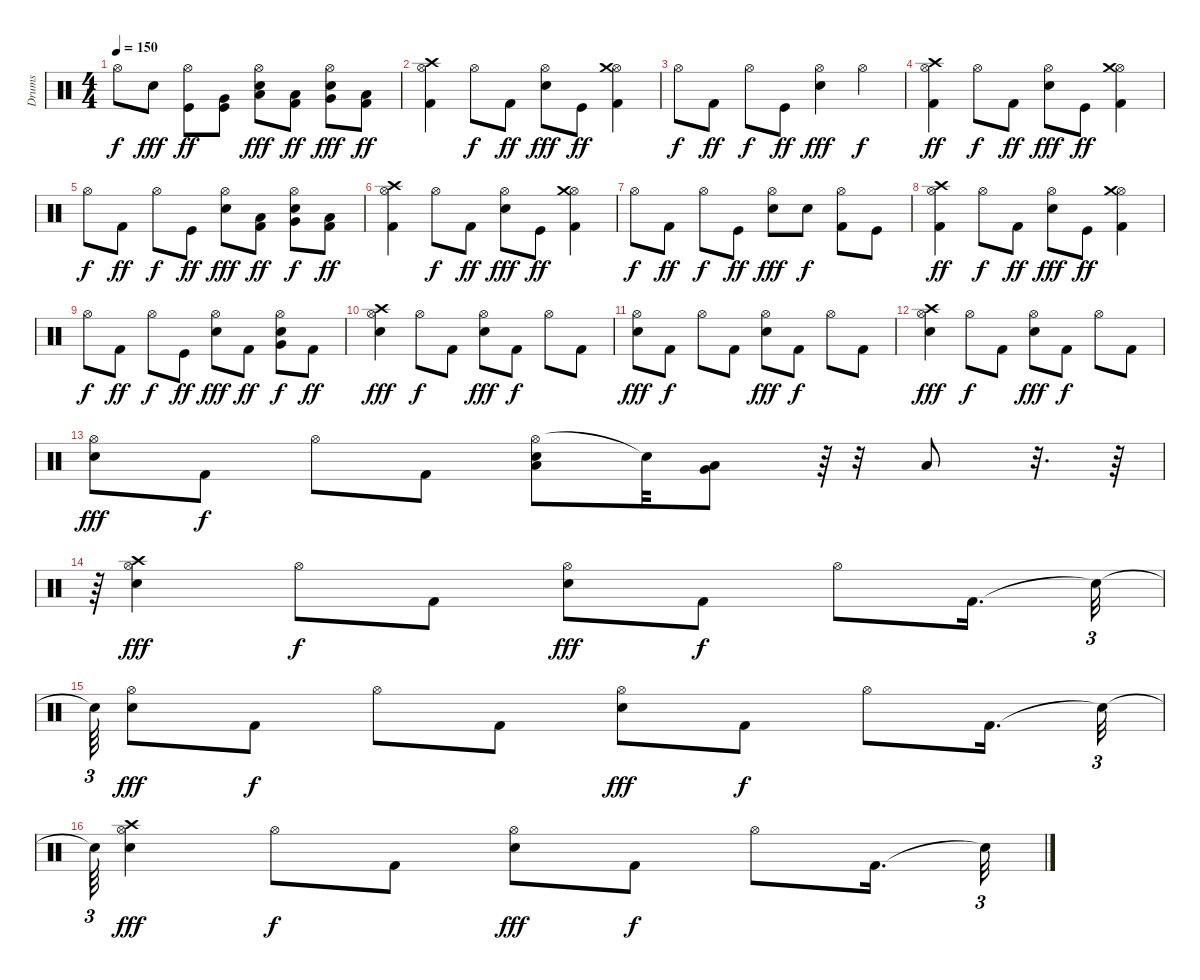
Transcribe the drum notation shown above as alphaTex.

\track ("Drums" "Drums") {instrument percussion}
\staff {score}
\articulation defaults
\ts (4 4)
\tempo 150
\clef neutral
\ks c "Hi-Hat (open)".8{dy f} "Electric Snare (hit)".8{dy fff}
("Hi-Hat (open)" "Kick (hit)").8{dy ff} ("Very Low Tom (hit)" "Kick (hit)").8 ("Hi-Hat (open)" "Electric Snare (hit)" "Low Tom (hit)").8{dy fff} ("Low Tom (hit)" "Kick (hit) 2").8{dy ff} ("Hi-Hat (open)" "Very Low Tom (hit)" "Electric Snare (hit)").8{dy fff} ("Low Floor Tom (hit)" "Kick (hit) 2").8{dy ff} |
("Hi-Hat (open)" "Crash high (hit)" "Kick (hit) 2").4 "Hi-Hat (open)".8{dy f} "Kick (hit) 2".8{dy ff} ("Hi-Hat (open)" "Electric Snare (hit)").8{dy fff} "Kick (hit)".8{dy ff} ("Hi-Hat (open)" "Crash medium (hit)" "Kick (hit) 2").4 |
"Hi-Hat (open)".8{dy f} "Kick (hit) 2".8{dy ff} "Hi-Hat (open)".8{dy f} "Kick (hit)".8{dy ff} ("Hi-Hat (open)" "Electric Snare (hit)").4{dy fff} "Hi-Hat (open)".4{dy f} |
("Hi-Hat (open)" "Crash high (hit)" "Kick (hit) 2").4{dy ff} "Hi-Hat (open)".8{dy f} "Kick (hit) 2".8{dy ff} ("Hi-Hat (open)" "Electric Snare (hit)").8{dy fff} "Kick (hit)".8{dy ff} ("Hi-Hat (open)" "Crash medium (hit)" "Kick (hit) 2").4 |
"Hi-Hat (open)".8{dy f} "Kick (hit) 2".8{dy ff} "Hi-Hat (open)".8{dy f} "Kick (hit)".8{dy ff} ("Hi-Hat (open)" "Electric Snare (hit)").8{dy fff} ("Low Tom (hit)" "Kick (hit) 2").8{dy ff} ("Electric Snare (hit)" "Very Low Tom (hit)" "Hi-Hat (open)").8{dy f} ("Low Floor Tom (hit)" "Kick (hit) 2").8{dy ff} |
("Hi-Hat (open)" "Crash high (hit)" "Kick (hit) 2").4 "Hi-Hat (open)".8{dy f} "Kick (hit) 2".8{dy ff} ("Hi-Hat (open)" "Electric Snare (hit)").8{dy fff} "Kick (hit)".8{dy ff} ("Hi-Hat (open)" "Crash medium (hit)" "Kick (hit) 2").4 |
"Hi-Hat (open)".8{dy f} "Kick (hit) 2".8{dy ff} "Hi-Hat (open)".8{dy f} "Kick (hit)".8{dy ff} ("Hi-Hat (open)" "Electric Snare (hit)").8{dy fff} "Electric Snare (hit)".8{dy f} ("Hi-Hat (open)" "Kick (hit) 2").8 "Kick (hit)".8 |
("Hi-Hat (open)" "Crash high (hit)" "Kick (hit) 2").4{dy ff} "Hi-Hat (open)".8{dy f} "Kick (hit) 2".8{dy ff} ("Hi-Hat (open)" "Electric Snare (hit)").8{dy fff} "Kick (hit)".8{dy ff} ("Hi-Hat (open)" "Crash medium (hit)" "Kick (hit) 2").4 |
"Hi-Hat (open)".8{dy f} "Kick (hit) 2".8{dy ff} "Hi-Hat (open)".8{dy f} "Kick (hit)".8{dy ff} ("Hi-Hat (open)" "Electric Snare (hit)").8{dy fff} "Kick (hit) 2".8{dy ff} ("Very Low Tom (hit)" "Electric Snare (hit)" "Hi-Hat (open)").8{dy f} "Kick (hit) 2".8{dy ff} |
("Crash high (hit)" "Hi-Hat (open)" "Electric Snare (hit)").4{dy fff} "Hi-Hat (open)".8{dy f} "Kick (hit) 2".8 ("Hi-Hat (open)" "Electric Snare (hit)").8{dy fff} "Kick (hit) 2".8{dy f} "Hi-Hat (open)".8 "Kick (hit) 2".8 |
("Hi-Hat (open)" "Electric Snare (hit)").8{dy fff} "Kick (hit) 2".8{dy f} "Hi-Hat (open)".8 "Kick (hit) 2".8 ("Hi-Hat (open)" "Electric Snare (hit)").8{dy fff} "Kick (hit) 2".8{dy f} "Hi-Hat (open)".8 "Kick (hit) 2".8 |
("Hi-Hat (open)" "Crash high (hit)" "Electric Snare (hit)").4{dy fff} "Hi-Hat (open)".8{dy f} "Kick (hit) 2".8 ("Hi-Hat (open)" "Electric Snare (hit)").8{dy fff} "Kick (hit) 2".8{dy f} "Hi-Hat (open)".8 "Kick (hit) 2".8 |
("Electric Snare (hit)" "Hi-Hat (open)").8{dy fff} "Kick (hit) 2".8{dy f} "Hi-Hat (open)".8 "Kick (hit) 2".8 ("Hi-Hat (open)" "Electric Snare (hit)" "Low Tom (hit)").8 "Snare (hit)"{t}.32 ("Low Tom (hit)" "Very Low Tom (hit)").8 r.64{tu (3 2)} r.32 "Low Floor Tom (hit)".8 r.32{d} r.64 |
r.64{tu (3 2)} ("Crash high (hit)" "Hi-Hat (open)" "Electric Snare (hit)").4{dy fff} "Hi-Hat (open)".8{dy f} "Kick (hit) 2".8 ("Hi-Hat (open)" "Electric Snare (hit)").8{dy fff} "Kick (hit) 2".8{dy f} "Hi-Hat (open)".8 "Kick (hit) 2".16{d} "Snare (hit)"{t}.32{tu (3 2)} |
"Snare (hit)"{t}.64{tu (3 2)} ("Hi-Hat (open)" "Electric Snare (hit)").8{dy fff} "Kick (hit) 2".8{dy f} "Hi-Hat (open)".8 "Kick (hit) 2".8 ("Hi-Hat (open)" "Electric Snare (hit)").8{dy fff} "Kick (hit) 2".8{dy f} "Hi-Hat (open)".8 "Kick (hit) 2".16{d} "Snare (hit)"{t}.32{tu (3 2)} |
"Snare (hit)"{t}.64{tu (3 2)} ("Hi-Hat (open)" "Crash high (hit)" "Electric Snare (hit)").4{dy fff} "Hi-Hat (open)".8{dy f} "Kick (hit) 2".8 ("Hi-Hat (open)" "Electric Snare (hit)").8{dy fff} "Kick (hit) 2".8{dy f} "Hi-Hat (open)".8 "Kick (hit) 2".16{d} "Snare (hit)"{t}.32{tu (3 2)}
